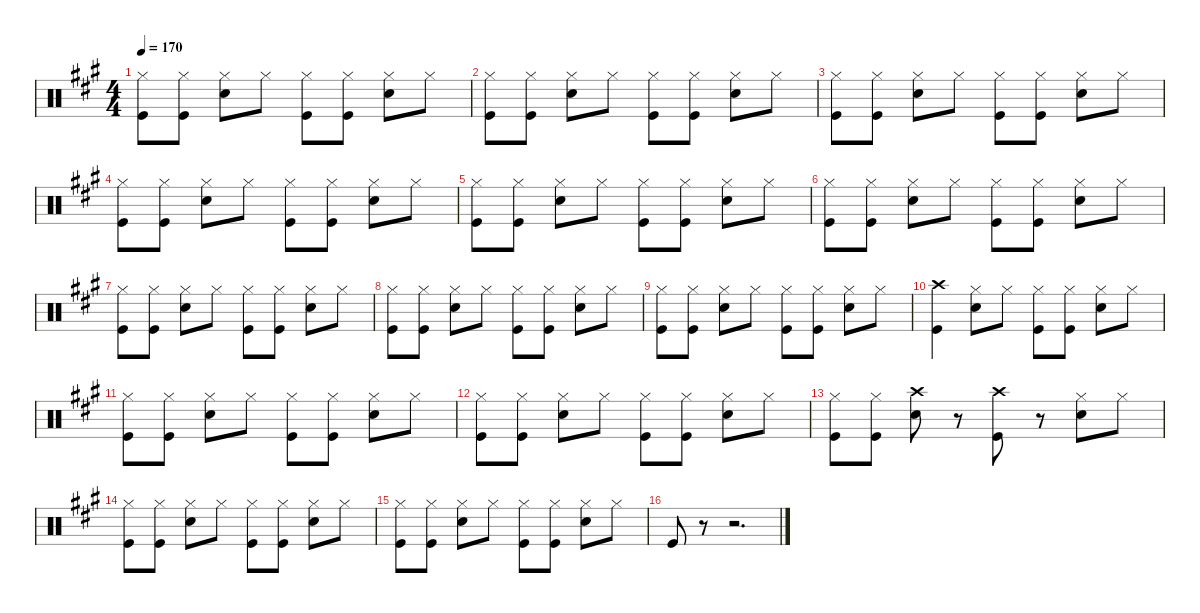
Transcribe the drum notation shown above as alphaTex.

\defaultSystemsLayout 4
\hideDynamics
\bracketExtendMode nobrackets
\singleTrackTrackNamePolicy hidden
\multiTrackTrackNamePolicy hidden
\firstSystemTrackNameMode fullname
\firstSystemTrackNameOrientation horizontal
\otherSystemsTrackNameOrientation horizontal
\track ("Percussion" "drm.") {defaultSystemsLayout 4 instrument percussion}
\staff {score}
\articulation defaults
\ts (4 4)
\tempo 170
\clef neutral
\ks a
("Hi-Hat (closed)"{acc forcenatural} "Kick (hit)"{acc forcenatural}).8{dy f beam Down} ("Hi-Hat (closed)"{acc forcenatural} "Kick (hit)"{acc forcenatural}).8{beam Down} ("Hi-Hat (closed)"{acc forcenatural} "Snare (hit) 2"{acc forcenatural}).8{beam Down} "Hi-Hat (closed)"{acc forcenatural}.8{beam Down} ("Hi-Hat (closed)"{acc forcenatural} "Kick (hit)"{acc forcenatural}).8{beam Down} ("Hi-Hat (closed)"{acc forcenatural} "Kick (hit)"{acc forcenatural}).8{beam Down} ("Hi-Hat (closed)"{acc forcenatural} "Snare (hit) 2"{acc forcenatural}).8{beam Down} "Hi-Hat (closed)"{acc forcenatural}.8{beam Down} |
("Hi-Hat (closed)"{acc forcenatural} "Kick (hit)"{acc forcenatural}).8{beam Down} ("Hi-Hat (closed)"{acc forcenatural} "Kick (hit)"{acc forcenatural}).8{beam Down} ("Hi-Hat (closed)"{acc forcenatural} "Snare (hit) 2"{acc forcenatural}).8{beam Down} "Hi-Hat (closed)"{acc forcenatural}.8{beam Down} ("Hi-Hat (closed)"{acc forcenatural} "Kick (hit)"{acc forcenatural}).8{beam Down} ("Hi-Hat (closed)"{acc forcenatural} "Kick (hit)"{acc forcenatural}).8{beam Down} ("Hi-Hat (closed)"{acc forcenatural} "Snare (hit) 2"{acc forcenatural}).8{beam Down} "Hi-Hat (closed)"{acc forcenatural}.8{beam Down} |
("Hi-Hat (closed)"{acc forcenatural} "Kick (hit)"{acc forcenatural}).8{beam Down} ("Hi-Hat (closed)"{acc forcenatural} "Kick (hit)"{acc forcenatural}).8{beam Down} ("Hi-Hat (closed)"{acc forcenatural} "Snare (hit) 2"{acc forcenatural}).8{beam Down} "Hi-Hat (closed)"{acc forcenatural}.8{beam Down} ("Hi-Hat (closed)"{acc forcenatural} "Kick (hit)"{acc forcenatural}).8{beam Down} ("Hi-Hat (closed)"{acc forcenatural} "Kick (hit)"{acc forcenatural}).8{beam Down} ("Hi-Hat (closed)"{acc forcenatural} "Snare (hit) 2"{acc forcenatural}).8{beam Down} "Hi-Hat (closed)"{acc forcenatural}.8{beam Down} |
("Hi-Hat (closed)"{acc forcenatural} "Kick (hit)"{acc forcenatural}).8{beam Down} ("Hi-Hat (closed)"{acc forcenatural} "Kick (hit)"{acc forcenatural}).8{beam Down} ("Hi-Hat (closed)"{acc forcenatural} "Snare (hit) 2"{acc forcenatural}).8{beam Down} "Hi-Hat (closed)"{acc forcenatural}.8{beam Down} ("Hi-Hat (closed)"{acc forcenatural} "Kick (hit)"{acc forcenatural}).8{beam Down} ("Hi-Hat (closed)"{acc forcenatural} "Kick (hit)"{acc forcenatural}).8{beam Down} ("Hi-Hat (closed)"{acc forcenatural} "Snare (hit) 2"{acc forcenatural}).8{beam Down} "Hi-Hat (closed)"{acc forcenatural}.8{beam Down} |
("Hi-Hat (closed)"{acc forcenatural} "Kick (hit)"{acc forcenatural}).8{beam Down} ("Hi-Hat (closed)"{acc forcenatural} "Kick (hit)"{acc forcenatural}).8{beam Down} ("Hi-Hat (closed)"{acc forcenatural} "Snare (hit) 2"{acc forcenatural}).8{beam Down} "Hi-Hat (closed)"{acc forcenatural}.8{beam Down} ("Hi-Hat (closed)"{acc forcenatural} "Kick (hit)"{acc forcenatural}).8{beam Down} ("Hi-Hat (closed)"{acc forcenatural} "Kick (hit)"{acc forcenatural}).8{beam Down} ("Hi-Hat (closed)"{acc forcenatural} "Snare (hit) 2"{acc forcenatural}).8{beam Down} "Hi-Hat (closed)"{acc forcenatural}.8{beam Down} |
("Hi-Hat (closed)"{acc forcenatural} "Kick (hit)"{acc forcenatural}).8{beam Down} ("Hi-Hat (closed)"{acc forcenatural} "Kick (hit)"{acc forcenatural}).8{beam Down} ("Hi-Hat (closed)"{acc forcenatural} "Snare (hit) 2"{acc forcenatural}).8{beam Down} "Hi-Hat (closed)"{acc forcenatural}.8{beam Down} ("Hi-Hat (closed)"{acc forcenatural} "Kick (hit)"{acc forcenatural}).8{beam Down} ("Hi-Hat (closed)"{acc forcenatural} "Kick (hit)"{acc forcenatural}).8{beam Down} ("Hi-Hat (closed)"{acc forcenatural} "Snare (hit) 2"{acc forcenatural}).8{beam Down} "Hi-Hat (closed)"{acc forcenatural}.8{beam Down} |
("Hi-Hat (closed)"{acc forcenatural} "Kick (hit)"{acc forcenatural}).8{beam Down} ("Hi-Hat (closed)"{acc forcenatural} "Kick (hit)"{acc forcenatural}).8{beam Down} ("Hi-Hat (closed)"{acc forcenatural} "Snare (hit) 2"{acc forcenatural}).8{beam Down} "Hi-Hat (closed)"{acc forcenatural}.8{beam Down} ("Hi-Hat (closed)"{acc forcenatural} "Kick (hit)"{acc forcenatural}).8{beam Down} ("Hi-Hat (closed)"{acc forcenatural} "Kick (hit)"{acc forcenatural}).8{beam Down} ("Hi-Hat (closed)"{acc forcenatural} "Snare (hit) 2"{acc forcenatural}).8{beam Down} "Hi-Hat (closed)"{acc forcenatural}.8{beam Down} |
("Hi-Hat (closed)"{acc forcenatural} "Kick (hit)"{acc forcenatural}).8{beam Down} ("Hi-Hat (closed)"{acc forcenatural} "Kick (hit)"{acc forcenatural}).8{beam Down} ("Hi-Hat (closed)"{acc forcenatural} "Snare (hit) 2"{acc forcenatural}).8{beam Down} "Hi-Hat (closed)"{acc forcenatural}.8{beam Down} ("Hi-Hat (closed)"{acc forcenatural} "Kick (hit)"{acc forcenatural}).8{beam Down} ("Hi-Hat (closed)"{acc forcenatural} "Kick (hit)"{acc forcenatural}).8{beam Down} ("Hi-Hat (closed)"{acc forcenatural} "Snare (hit) 2"{acc forcenatural}).8{beam Down} "Hi-Hat (closed)"{acc forcenatural}.8{beam Down} |
("Hi-Hat (closed)"{acc forcenatural} "Kick (hit)"{acc forcenatural}).8{beam Down} ("Hi-Hat (closed)"{acc forcenatural} "Kick (hit)"{acc forcenatural}).8{beam Down} ("Hi-Hat (closed)"{acc forcenatural} "Snare (hit) 2"{acc forcenatural}).8{beam Down} "Hi-Hat (closed)"{acc forcenatural}.8{beam Down} ("Hi-Hat (closed)"{acc forcenatural} "Kick (hit)"{acc forcenatural}).8{beam Down} ("Hi-Hat (closed)"{acc forcenatural} "Kick (hit)"{acc forcenatural}).8{beam Down} ("Hi-Hat (closed)"{acc forcenatural} "Snare (hit) 2"{acc forcenatural}).8{beam Down} "Hi-Hat (closed)"{acc forcenatural}.8{beam Down} |
("Crash high (hit)"{acc forcenatural} "Kick (hit)"{acc forcenatural}).4{beam Down} ("Hi-Hat (closed)"{acc forcenatural} "Snare (hit) 2"{acc forcenatural}).8{beam Down} "Hi-Hat (closed)"{acc forcenatural}.8{beam Down} ("Hi-Hat (closed)"{acc forcenatural} "Kick (hit)"{acc forcenatural}).8{beam Down} ("Hi-Hat (closed)"{acc forcenatural} "Kick (hit)"{acc forcenatural}).8{beam Down} ("Hi-Hat (closed)"{acc forcenatural} "Snare (hit) 2"{acc forcenatural}).8{beam Down} "Hi-Hat (closed)"{acc forcenatural}.8{beam Down} |
("Hi-Hat (closed)"{acc forcenatural} "Kick (hit)"{acc forcenatural}).8{beam Down} ("Hi-Hat (closed)"{acc forcenatural} "Kick (hit)"{acc forcenatural}).8{beam Down} ("Hi-Hat (closed)"{acc forcenatural} "Snare (hit) 2"{acc forcenatural}).8{beam Down} "Hi-Hat (closed)"{acc forcenatural}.8{beam Down} ("Hi-Hat (closed)"{acc forcenatural} "Kick (hit)"{acc forcenatural}).8{beam Down} ("Hi-Hat (closed)"{acc forcenatural} "Kick (hit)"{acc forcenatural}).8{beam Down} ("Hi-Hat (closed)"{acc forcenatural} "Snare (hit) 2"{acc forcenatural}).8{beam Down} "Hi-Hat (closed)"{acc forcenatural}.8{beam Down} |
("Hi-Hat (closed)"{acc forcenatural} "Kick (hit)"{acc forcenatural}).8{beam Down} ("Hi-Hat (closed)"{acc forcenatural} "Kick (hit)"{acc forcenatural}).8{beam Down} ("Hi-Hat (closed)"{acc forcenatural} "Snare (hit) 2"{acc forcenatural}).8{beam Down} "Hi-Hat (closed)"{acc forcenatural}.8{beam Down} ("Hi-Hat (closed)"{acc forcenatural} "Kick (hit)"{acc forcenatural}).8{beam Down} ("Hi-Hat (closed)"{acc forcenatural} "Kick (hit)"{acc forcenatural}).8{beam Down} ("Hi-Hat (closed)"{acc forcenatural} "Snare (hit) 2"{acc forcenatural}).8{beam Down} "Hi-Hat (closed)"{acc forcenatural}.8{beam Down} |
("Hi-Hat (closed)"{acc forcenatural} "Kick (hit)"{acc forcenatural}).8{beam Down} ("Hi-Hat (closed)"{acc forcenatural} "Kick (hit)"{acc forcenatural}).8{beam Down} ("Crash high (hit)"{acc forcenatural} "Snare (hit) 2"{acc forcenatural}).8{beam Down} r.8{beam Down} ("Crash high (hit)"{acc forcenatural} "Kick (hit)"{acc forcenatural}).8{beam Down} r.8{beam Down} ("Hi-Hat (closed)"{acc forcenatural} "Snare (hit) 2"{acc forcenatural}).8{beam Down} "Hi-Hat (closed)"{acc forcenatural}.8{beam Down} |
("Hi-Hat (closed)"{acc forcenatural} "Kick (hit)"{acc forcenatural}).8{beam Down} ("Hi-Hat (closed)"{acc forcenatural} "Kick (hit)"{acc forcenatural}).8{beam Down} ("Hi-Hat (closed)"{acc forcenatural} "Snare (hit) 2"{acc forcenatural}).8{beam Down} "Hi-Hat (closed)"{acc forcenatural}.8{beam Down} ("Hi-Hat (closed)"{acc forcenatural} "Kick (hit)"{acc forcenatural}).8{beam Down} ("Hi-Hat (closed)"{acc forcenatural} "Kick (hit)"{acc forcenatural}).8{beam Down} ("Hi-Hat (closed)"{acc forcenatural} "Snare (hit) 2"{acc forcenatural}).8{beam Down} "Hi-Hat (closed)"{acc forcenatural}.8{beam Down} |
("Hi-Hat (closed)"{acc forcenatural} "Kick (hit)"{acc forcenatural}).8{beam Down} ("Hi-Hat (closed)"{acc forcenatural} "Kick (hit)"{acc forcenatural}).8{beam Down} ("Hi-Hat (closed)"{acc forcenatural} "Snare (hit) 2"{acc forcenatural}).8{beam Down} "Hi-Hat (closed)"{acc forcenatural}.8{beam Down} ("Hi-Hat (closed)"{acc forcenatural} "Kick (hit)"{acc forcenatural}).8{beam Down} ("Hi-Hat (closed)"{acc forcenatural} "Kick (hit)"{acc forcenatural}).8{beam Down} ("Hi-Hat (closed)"{acc forcenatural} "Snare (hit) 2"{acc forcenatural}).8{beam Down} "Hi-Hat (closed)"{acc forcenatural}.8{beam Down} |
"Kick (hit)"{acc forcenatural}.8{beam Up} r.8{beam Up} r.2{d beam Up}
